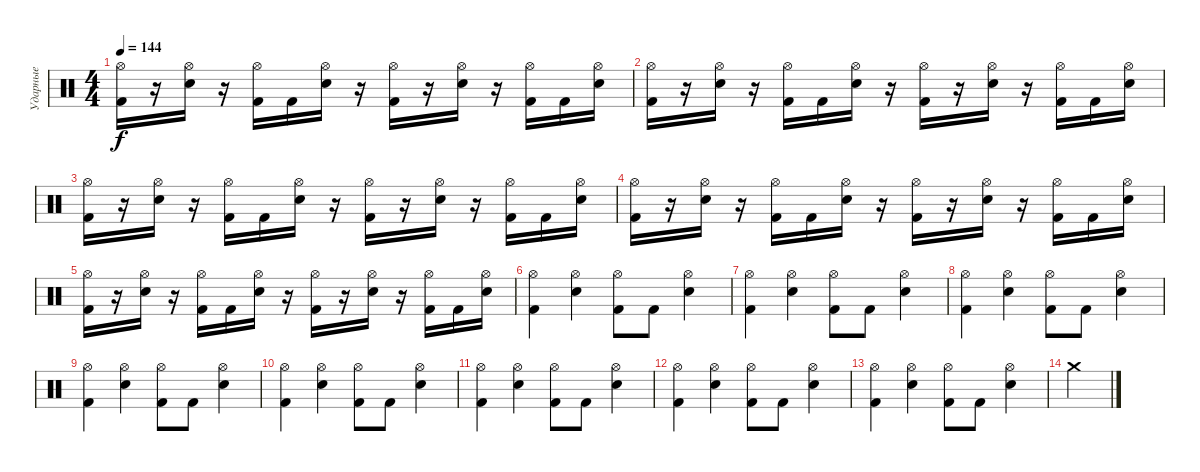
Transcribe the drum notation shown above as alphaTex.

\track ("Ударные" "Ударные") {instrument percussion}
\staff {score}
\articulation defaults
\ts (4 4)
\tempo 144
\clef neutral
\ks c
("Hi-Hat (open)" "Kick (hit) 2").16{dy f} r.16 ("Hi-Hat (open)" "Electric Snare (hit)").16 r.16 ("Hi-Hat (open)" "Kick (hit) 2").16 "Kick (hit) 2".16 ("Hi-Hat (open)" "Electric Snare (hit)").16 r.16 ("Hi-Hat (open)" "Kick (hit) 2").16 r.16 ("Hi-Hat (open)" "Electric Snare (hit)").16 r.16 ("Hi-Hat (open)" "Kick (hit) 2").16 "Kick (hit) 2".16 ("Hi-Hat (open)" "Electric Snare (hit)").16 |
("Hi-Hat (open)" "Kick (hit) 2").16 r.16 ("Hi-Hat (open)" "Electric Snare (hit)").16 r.16 ("Hi-Hat (open)" "Kick (hit) 2").16 "Kick (hit) 2".16 ("Hi-Hat (open)" "Electric Snare (hit)").16 r.16 ("Hi-Hat (open)" "Kick (hit) 2").16 r.16 ("Hi-Hat (open)" "Electric Snare (hit)").16 r.16 ("Hi-Hat (open)" "Kick (hit) 2").16 "Kick (hit) 2".16 ("Hi-Hat (open)" "Electric Snare (hit)").16 |
("Hi-Hat (open)" "Kick (hit) 2").16 r.16 ("Hi-Hat (open)" "Electric Snare (hit)").16 r.16 ("Hi-Hat (open)" "Kick (hit) 2").16 "Kick (hit) 2".16 ("Hi-Hat (open)" "Electric Snare (hit)").16 r.16 ("Hi-Hat (open)" "Kick (hit) 2").16 r.16 ("Hi-Hat (open)" "Electric Snare (hit)").16 r.16 ("Hi-Hat (open)" "Kick (hit) 2").16 "Kick (hit) 2".16 ("Hi-Hat (open)" "Electric Snare (hit)").16 |
("Hi-Hat (open)" "Kick (hit) 2").16 r.16 ("Hi-Hat (open)" "Electric Snare (hit)").16 r.16 ("Hi-Hat (open)" "Kick (hit) 2").16 "Kick (hit) 2".16 ("Hi-Hat (open)" "Electric Snare (hit)").16 r.16 ("Hi-Hat (open)" "Kick (hit) 2").16 r.16 ("Hi-Hat (open)" "Electric Snare (hit)").16 r.16 ("Hi-Hat (open)" "Kick (hit) 2").16 "Kick (hit) 2".16 ("Hi-Hat (open)" "Electric Snare (hit)").16 |
("Hi-Hat (open)" "Kick (hit) 2").16 r.16 ("Hi-Hat (open)" "Electric Snare (hit)").16 r.16 ("Hi-Hat (open)" "Kick (hit) 2").16 "Kick (hit) 2".16 ("Hi-Hat (open)" "Electric Snare (hit)").16 r.16 ("Hi-Hat (open)" "Kick (hit) 2").16 r.16 ("Hi-Hat (open)" "Electric Snare (hit)").16 r.16 ("Hi-Hat (open)" "Kick (hit) 2").16 "Kick (hit) 2".16 ("Hi-Hat (open)" "Electric Snare (hit)").16 |
("Hi-Hat (open)" "Kick (hit) 2").4 ("Hi-Hat (open)" "Snare (hit) 2").4 ("Hi-Hat (open)" "Kick (hit) 2").8 "Kick (hit) 2".8 ("Hi-Hat (open)" "Snare (hit) 2").4 |
("Hi-Hat (open)" "Kick (hit) 2").4 ("Hi-Hat (open)" "Snare (hit) 2").4 ("Hi-Hat (open)" "Kick (hit) 2").8 "Kick (hit) 2".8 ("Hi-Hat (open)" "Snare (hit) 2").4 |
("Hi-Hat (open)" "Kick (hit) 2").4 ("Hi-Hat (open)" "Snare (hit) 2").4 ("Hi-Hat (open)" "Kick (hit) 2").8 "Kick (hit) 2".8 ("Hi-Hat (open)" "Snare (hit) 2").4 |
("Hi-Hat (open)" "Kick (hit) 2").4 ("Hi-Hat (open)" "Snare (hit) 2").4 ("Hi-Hat (open)" "Kick (hit) 2").8 "Kick (hit) 2".8 ("Hi-Hat (open)" "Snare (hit) 2").4 |
("Hi-Hat (open)" "Kick (hit) 2").4 ("Hi-Hat (open)" "Snare (hit) 2").4 ("Hi-Hat (open)" "Kick (hit) 2").8 "Kick (hit) 2".8 ("Hi-Hat (open)" "Snare (hit) 2").4 |
("Hi-Hat (open)" "Kick (hit) 2").4 ("Hi-Hat (open)" "Snare (hit) 2").4 ("Hi-Hat (open)" "Kick (hit) 2").8 "Kick (hit) 2".8 ("Hi-Hat (open)" "Snare (hit) 2").4 |
("Hi-Hat (open)" "Kick (hit) 2").4 ("Hi-Hat (open)" "Snare (hit) 2").4 ("Hi-Hat (open)" "Kick (hit) 2").8 "Kick (hit) 2".8 ("Hi-Hat (open)" "Snare (hit) 2").4 |
("Hi-Hat (open)" "Kick (hit) 2").4 ("Hi-Hat (open)" "Snare (hit) 2").4 ("Hi-Hat (open)" "Kick (hit) 2").8 "Kick (hit) 2".8 ("Hi-Hat (open)" "Snare (hit) 2").4 |
"Crash medium (hit)".4
